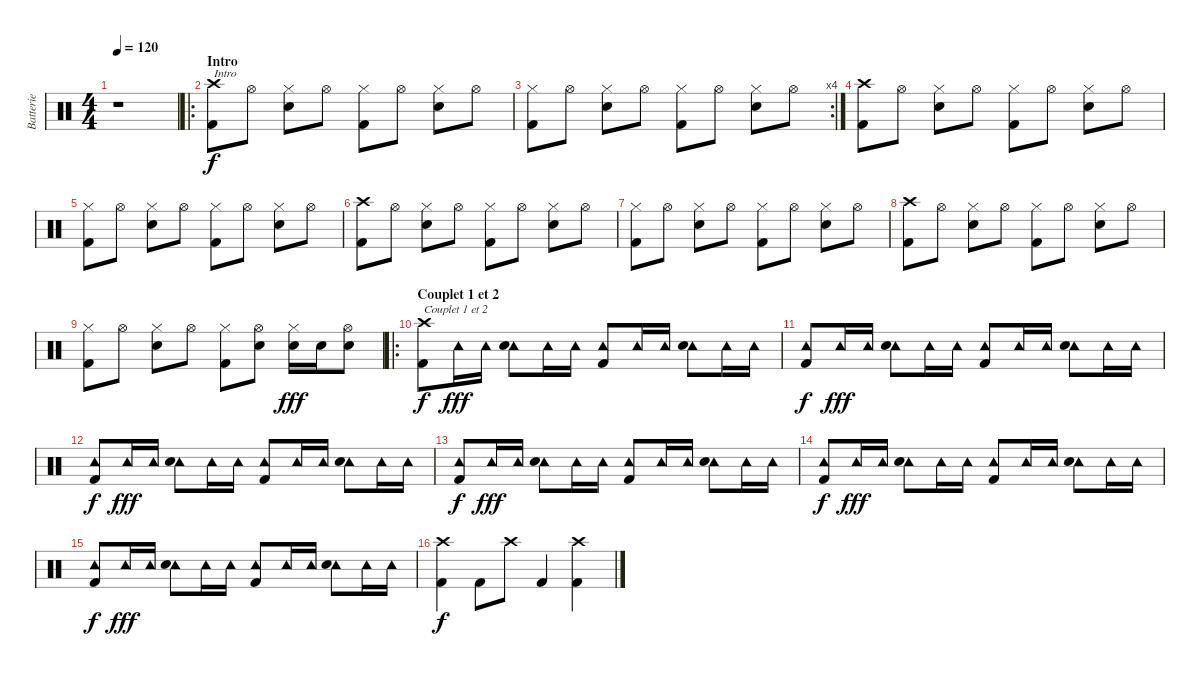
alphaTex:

\track ("Batterie" "Batterie") {instrument percussion}
\staff {score}
\articulation defaults
\ts (4 4)
\tempo 120
\clef neutral
\ks c
r.1{dy f} |
\ro
\section ("" "Intro")
("Crash high (hit)" "Kick (hit) 2").8{txt "Intro"} "Hi-Hat (open)".8 ("Hi-Hat (closed)" "Electric Snare (hit)").8 "Hi-Hat (open)".8 ("Hi-Hat (closed)" "Kick (hit) 2").8 "Hi-Hat (open)".8 ("Hi-Hat (closed)" "Electric Snare (hit)").8 "Hi-Hat (open)".8 |
\rc 4
("Hi-Hat (closed)" "Kick (hit) 2").8 "Hi-Hat (open)".8 ("Hi-Hat (closed)" "Electric Snare (hit)").8 "Hi-Hat (open)".8 ("Hi-Hat (closed)" "Kick (hit) 2").8 "Hi-Hat (open)".8 ("Hi-Hat (closed)" "Electric Snare (hit)").8 "Hi-Hat (open)".8 |
("Crash high (hit)" "Kick (hit) 2").8 "Hi-Hat (open)".8 ("Hi-Hat (closed)" "Electric Snare (hit)").8 "Hi-Hat (open)".8 ("Hi-Hat (closed)" "Kick (hit) 2").8 "Hi-Hat (open)".8 ("Hi-Hat (closed)" "Electric Snare (hit)").8 "Hi-Hat (open)".8 |
("Hi-Hat (closed)" "Kick (hit) 2").8 "Hi-Hat (open)".8 ("Hi-Hat (closed)" "Electric Snare (hit)").8 "Hi-Hat (open)".8 ("Hi-Hat (closed)" "Kick (hit) 2").8 "Hi-Hat (open)".8 ("Hi-Hat (closed)" "Electric Snare (hit)").8 "Hi-Hat (open)".8 |
("Crash high (hit)" "Kick (hit) 2").8 "Hi-Hat (open)".8 ("Hi-Hat (closed)" "Electric Snare (hit)").8 "Hi-Hat (open)".8 ("Hi-Hat (closed)" "Kick (hit) 2").8 "Hi-Hat (open)".8 ("Hi-Hat (closed)" "Electric Snare (hit)").8 "Hi-Hat (open)".8 |
("Hi-Hat (closed)" "Kick (hit) 2").8 "Hi-Hat (open)".8 ("Hi-Hat (closed)" "Electric Snare (hit)").8 "Hi-Hat (open)".8 ("Hi-Hat (closed)" "Kick (hit) 2").8 "Hi-Hat (open)".8 ("Hi-Hat (closed)" "Electric Snare (hit)").8 "Hi-Hat (open)".8 |
("Crash high (hit)" "Kick (hit) 2").8 "Hi-Hat (open)".8 ("Hi-Hat (closed)" "Electric Snare (hit)").8 "Hi-Hat (open)".8 ("Hi-Hat (closed)" "Kick (hit) 2").8 "Hi-Hat (open)".8 ("Hi-Hat (closed)" "Electric Snare (hit)").8 "Hi-Hat (open)".8 |
("Hi-Hat (closed)" "Kick (hit) 2").8 "Hi-Hat (open)".8 ("Hi-Hat (closed)" "Electric Snare (hit)").8 "Hi-Hat (open)".8 ("Hi-Hat (closed)" "Kick (hit) 2").8 ("Hi-Hat (open)" "Electric Snare (hit)").8 ("Hi-Hat (closed)" "Electric Snare (hit)").16{dy fff} "Electric Snare (hit)".16 ("Hi-Hat (open)" "Electric Snare (hit)").8 |
\ro
\section ("" "Couplet 1 et 2")
("Crash high (hit)" "Kick (hit) 2").8{txt "Couplet 1 et 2" dy f} "Tambourine (hit)".16{dy fff} "Tambourine (hit)".16 ("Tambourine (hit)" "Electric Snare (hit)").8 "Tambourine (hit)".16 "Tambourine (hit)".16 ("Tambourine (hit)" "Kick (hit) 2").8 "Tambourine (hit)".16 "Tambourine (hit)".16 ("Tambourine (hit)" "Electric Snare (hit)").8 "Tambourine (hit)".16 "Tambourine (hit)".16 |
("Tambourine (hit)" "Kick (hit) 2").8{dy f} "Tambourine (hit)".16{dy fff} "Tambourine (hit)".16 ("Tambourine (hit)" "Electric Snare (hit)").8 "Tambourine (hit)".16 "Tambourine (hit)".16 ("Tambourine (hit)" "Kick (hit) 2").8 "Tambourine (hit)".16 "Tambourine (hit)".16 ("Tambourine (hit)" "Electric Snare (hit)").8 "Tambourine (hit)".16 "Tambourine (hit)".16 |
("Tambourine (hit)" "Kick (hit) 2").8{dy f} "Tambourine (hit)".16{dy fff} "Tambourine (hit)".16 ("Tambourine (hit)" "Electric Snare (hit)").8 "Tambourine (hit)".16 "Tambourine (hit)".16 ("Tambourine (hit)" "Kick (hit) 2").8 "Tambourine (hit)".16 "Tambourine (hit)".16 ("Tambourine (hit)" "Electric Snare (hit)").8 "Tambourine (hit)".16 "Tambourine (hit)".16 |
("Tambourine (hit)" "Kick (hit) 2").8{dy f} "Tambourine (hit)".16{dy fff} "Tambourine (hit)".16 ("Tambourine (hit)" "Electric Snare (hit)").8 "Tambourine (hit)".16 "Tambourine (hit)".16 ("Tambourine (hit)" "Kick (hit) 2").8 "Tambourine (hit)".16 "Tambourine (hit)".16 ("Tambourine (hit)" "Electric Snare (hit)").8 "Tambourine (hit)".16 "Tambourine (hit)".16 |
("Tambourine (hit)" "Kick (hit) 2").8{dy f} "Tambourine (hit)".16{dy fff} "Tambourine (hit)".16 ("Tambourine (hit)" "Electric Snare (hit)").8 "Tambourine (hit)".16 "Tambourine (hit)".16 ("Tambourine (hit)" "Kick (hit) 2").8 "Tambourine (hit)".16 "Tambourine (hit)".16 ("Tambourine (hit)" "Electric Snare (hit)").8 "Tambourine (hit)".16 "Tambourine (hit)".16 |
("Tambourine (hit)" "Kick (hit) 2").8{dy f} "Tambourine (hit)".16{dy fff} "Tambourine (hit)".16 ("Tambourine (hit)" "Electric Snare (hit)").8 "Tambourine (hit)".16 "Tambourine (hit)".16 ("Tambourine (hit)" "Kick (hit) 2").8 "Tambourine (hit)".16 "Tambourine (hit)".16 ("Tambourine (hit)" "Electric Snare (hit)").8 "Tambourine (hit)".16 "Tambourine (hit)".16 |
("Crash high (hit)" "Kick (hit) 2").4{dy f} "Kick (hit) 2".8 "Crash high (hit)".8 "Kick (hit) 2".4 ("Crash high (hit)" "Kick (hit) 2").4
